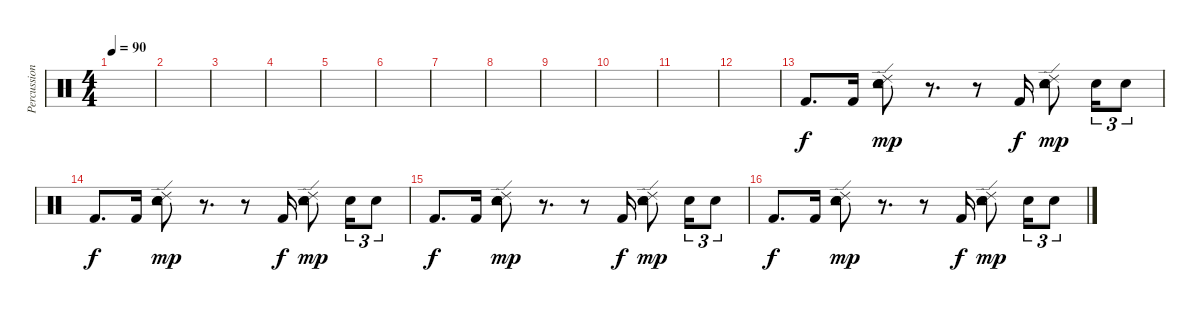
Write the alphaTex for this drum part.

\track ("Percussion" "Percussion") {instrument percussion}
\staff {score}
\articulation defaults
\ts (4 4)
\tempo 90
\clef neutral
\ks c
|
|
|
|
|
|
|
|
|
|
|
|
"Kick (hit) 2".8{d dy f} "Kick (hit) 2".16 ("Ride (edge) 2" "Tambourine (hit)" "Electric Snare (hit)" "Snare (hit) 2").8{dy mp} r.8{d} r.8 "Kick (hit) 2".16{dy f} ("Ride (edge) 2" "Tambourine (hit)" "Electric Snare (hit)" "Snare (hit) 2").8{dy mp} "Electric Snare (hit)".16{tu (3 2)} "Electric Snare (hit)".8{tu (3 2)} |
"Kick (hit) 2".8{d dy f} "Kick (hit) 2".16 ("Ride (edge) 2" "Tambourine (hit)" "Electric Snare (hit)" "Snare (hit) 2").8{dy mp} r.8{d} r.8 "Kick (hit) 2".16{dy f} ("Ride (edge) 2" "Tambourine (hit)" "Electric Snare (hit)" "Snare (hit) 2").8{dy mp} "Electric Snare (hit)".16{tu (3 2)} "Electric Snare (hit)".8{tu (3 2)} |
"Kick (hit) 2".8{d dy f} "Kick (hit) 2".16 ("Ride (edge) 2" "Tambourine (hit)" "Electric Snare (hit)" "Snare (hit) 2").8{dy mp} r.8{d} r.8 "Kick (hit) 2".16{dy f} ("Ride (edge) 2" "Tambourine (hit)" "Electric Snare (hit)" "Snare (hit) 2").8{dy mp} "Electric Snare (hit)".16{tu (3 2)} "Electric Snare (hit)".8{tu (3 2)} |
"Kick (hit) 2".8{d dy f} "Kick (hit) 2".16 ("Ride (edge) 2" "Tambourine (hit)" "Electric Snare (hit)" "Snare (hit) 2").8{dy mp} r.8{d} r.8 "Kick (hit) 2".16{dy f} ("Ride (edge) 2" "Tambourine (hit)" "Electric Snare (hit)" "Snare (hit) 2").8{dy mp} "Electric Snare (hit)".16{tu (3 2)} "Electric Snare (hit)".8{tu (3 2)}
